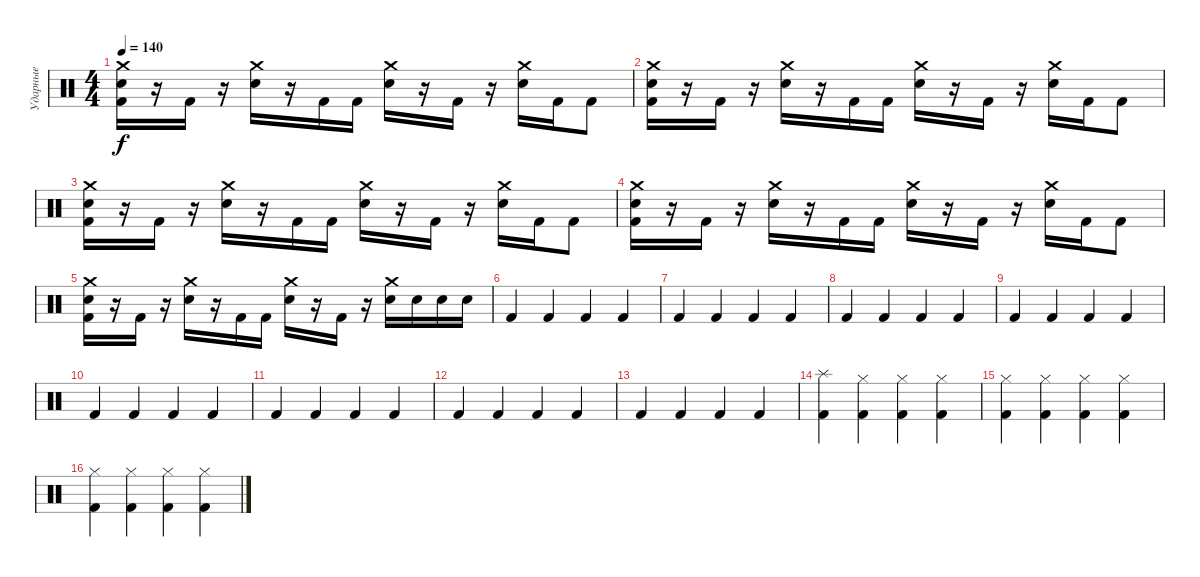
\track ("Ударные" "Ударные") {instrument percussion}
\staff {score}
\articulation defaults
\ts (4 4)
\tempo 140
\clef neutral
\ks c
("Crash medium (hit)" "Electric Snare (hit)" "Kick (hit) 2").16{dy f} r.16 "Kick (hit) 2".16 r.16 ("Crash medium (hit)" "Electric Snare (hit)").16 r.16 "Kick (hit) 2".16 "Kick (hit) 2".16 ("Crash medium (hit)" "Electric Snare (hit)").16 r.16 "Kick (hit) 2".16 r.16 ("Crash medium (hit)" "Electric Snare (hit)").16 "Kick (hit) 2".16 "Kick (hit) 2".8 |
("Crash medium (hit)" "Electric Snare (hit)" "Kick (hit) 2").16 r.16 "Kick (hit) 2".16 r.16 ("Crash medium (hit)" "Electric Snare (hit)").16 r.16 "Kick (hit) 2".16 "Kick (hit) 2".16 ("Crash medium (hit)" "Electric Snare (hit)").16 r.16 "Kick (hit) 2".16 r.16 ("Crash medium (hit)" "Electric Snare (hit)").16 "Kick (hit) 2".16 "Kick (hit) 2".8 |
("Crash medium (hit)" "Electric Snare (hit)" "Kick (hit) 2").16 r.16 "Kick (hit) 2".16 r.16 ("Crash medium (hit)" "Electric Snare (hit)").16 r.16 "Kick (hit) 2".16 "Kick (hit) 2".16 ("Crash medium (hit)" "Electric Snare (hit)").16 r.16 "Kick (hit) 2".16 r.16 ("Crash medium (hit)" "Electric Snare (hit)").16 "Kick (hit) 2".16 "Kick (hit) 2".8 |
("Crash medium (hit)" "Electric Snare (hit)" "Kick (hit) 2").16 r.16 "Kick (hit) 2".16 r.16 ("Crash medium (hit)" "Electric Snare (hit)").16 r.16 "Kick (hit) 2".16 "Kick (hit) 2".16 ("Crash medium (hit)" "Electric Snare (hit)").16 r.16 "Kick (hit) 2".16 r.16 ("Crash medium (hit)" "Electric Snare (hit)").16 "Kick (hit) 2".16 "Kick (hit) 2".8 |
("Crash medium (hit)" "Electric Snare (hit)" "Kick (hit) 2").16 r.16 "Kick (hit) 2".16 r.16 ("Crash medium (hit)" "Electric Snare (hit)").16 r.16 "Kick (hit) 2".16 "Kick (hit) 2".16 ("Crash medium (hit)" "Electric Snare (hit)").16 r.16 "Kick (hit) 2".16 r.16 ("Crash medium (hit)" "Electric Snare (hit)").16 "Electric Snare (hit)".16 "Electric Snare (hit)".16 "Electric Snare (hit)".16 |
"Kick (hit) 2".4 "Kick (hit) 2".4 "Kick (hit) 2".4 "Kick (hit) 2".4 |
"Kick (hit) 2".4 "Kick (hit) 2".4 "Kick (hit) 2".4 "Kick (hit) 2".4 |
"Kick (hit) 2".4 "Kick (hit) 2".4 "Kick (hit) 2".4 "Kick (hit) 2".4 |
"Kick (hit) 2".4 "Kick (hit) 2".4 "Kick (hit) 2".4 "Kick (hit) 2".4 |
"Kick (hit) 2".4 "Kick (hit) 2".4 "Kick (hit) 2".4 "Kick (hit) 2".4 |
"Kick (hit) 2".4 "Kick (hit) 2".4 "Kick (hit) 2".4 "Kick (hit) 2".4 |
"Kick (hit) 2".4 "Kick (hit) 2".4 "Kick (hit) 2".4 "Kick (hit) 2".4 |
"Kick (hit) 2".4 "Kick (hit) 2".4 "Kick (hit) 2".4 "Kick (hit) 2".4 |
("Splash (hit)" "Kick (hit) 2").4 ("Hi-Hat (closed)" "Kick (hit) 2").4 ("Hi-Hat (closed)" "Kick (hit) 2").4 ("Hi-Hat (closed)" "Kick (hit) 2").4 |
("Hi-Hat (closed)" "Kick (hit) 2").4 ("Hi-Hat (closed)" "Kick (hit) 2").4 ("Hi-Hat (closed)" "Kick (hit) 2").4 ("Hi-Hat (closed)" "Kick (hit) 2").4 |
("Hi-Hat (closed)" "Kick (hit) 2").4 ("Hi-Hat (closed)" "Kick (hit) 2").4 ("Hi-Hat (closed)" "Kick (hit) 2").4 ("Hi-Hat (closed)" "Kick (hit) 2").4
